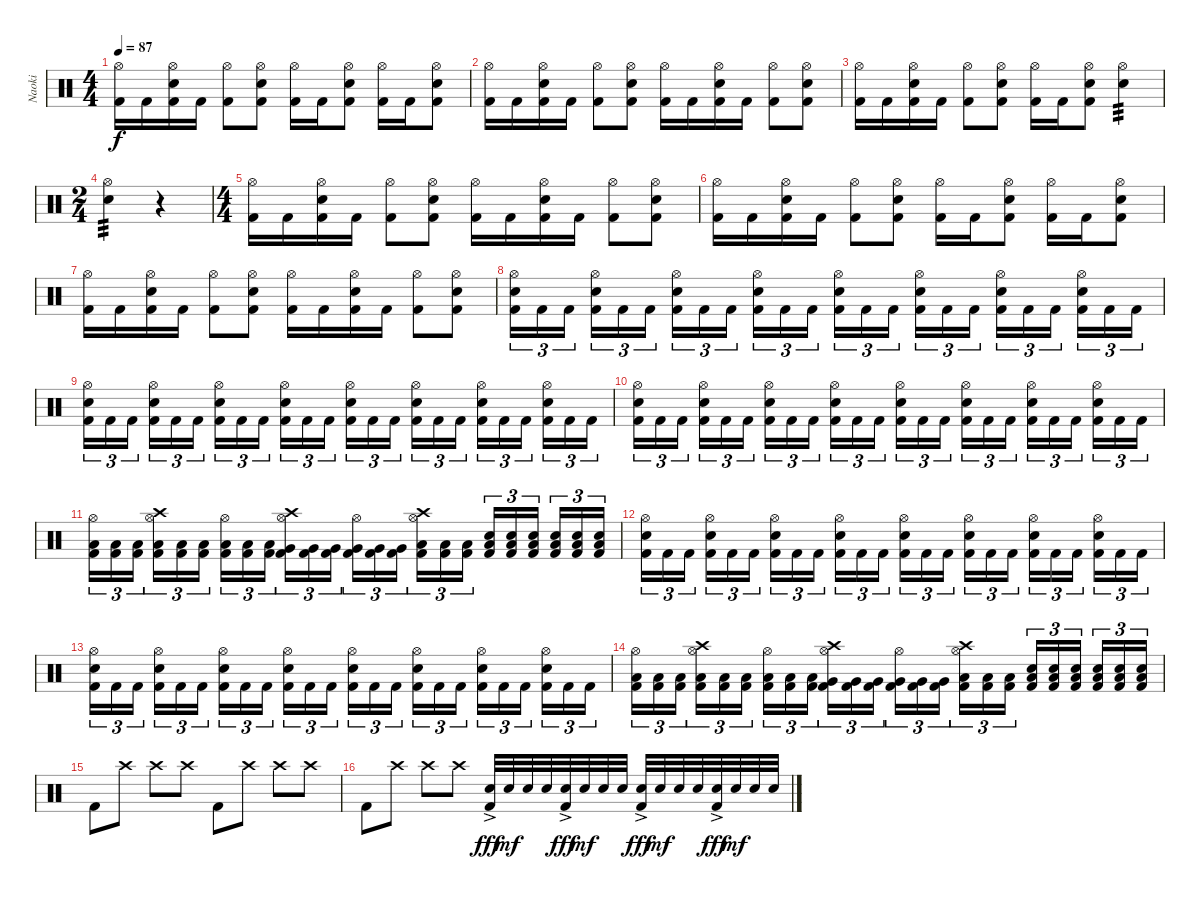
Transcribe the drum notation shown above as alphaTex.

\track ("Naoki" "Naoki") {instrument percussion}
\staff {score}
\articulation defaults
\ts (4 4)
\tempo 87
\clef neutral
\ks c
("Hi-Hat (open)" "Kick (hit) 2").16{dy f} "Kick (hit) 2".16 ("Hi-Hat (open)" "Electric Snare (hit)" "Kick (hit) 2").16 "Kick (hit) 2".16 ("Hi-Hat (open)" "Kick (hit) 2").8 ("Hi-Hat (open)" "Electric Snare (hit)" "Kick (hit) 2").8 ("Hi-Hat (open)" "Kick (hit) 2").16 "Kick (hit) 2".16 ("Hi-Hat (open)" "Electric Snare (hit)" "Kick (hit) 2").8 ("Hi-Hat (open)" "Kick (hit) 2").16 "Kick (hit) 2".16 ("Hi-Hat (open)" "Electric Snare (hit)" "Kick (hit) 2").8 |
("Hi-Hat (open)" "Kick (hit) 2").16 "Kick (hit) 2".16 ("Hi-Hat (open)" "Electric Snare (hit)" "Kick (hit) 2").16 "Kick (hit) 2".16 ("Hi-Hat (open)" "Kick (hit) 2").8 ("Hi-Hat (open)" "Electric Snare (hit)" "Kick (hit) 2").8 ("Hi-Hat (open)" "Kick (hit) 2").16 "Kick (hit) 2".16 ("Hi-Hat (open)" "Electric Snare (hit)" "Kick (hit) 2").16 "Kick (hit) 2".16 ("Hi-Hat (open)" "Kick (hit) 2").8 ("Hi-Hat (open)" "Electric Snare (hit)" "Kick (hit) 2").8 |
("Hi-Hat (open)" "Kick (hit) 2").16 "Kick (hit) 2".16 ("Hi-Hat (open)" "Electric Snare (hit)" "Kick (hit) 2").16 "Kick (hit) 2".16 ("Hi-Hat (open)" "Kick (hit) 2").8 ("Hi-Hat (open)" "Electric Snare (hit)" "Kick (hit) 2").8 ("Hi-Hat (open)" "Kick (hit) 2").16 "Kick (hit) 2".16 ("Hi-Hat (open)" "Electric Snare (hit)" "Kick (hit) 2").8 ("Hi-Hat (open)" "Electric Snare (hit)").4{tp 3} |
\ts (2 4)
("Hi-Hat (open)" "Electric Snare (hit)").4{tp 3} r.4 |
\ts (4 4)
("Hi-Hat (open)" "Kick (hit) 2").16 "Kick (hit) 2".16 ("Hi-Hat (open)" "Electric Snare (hit)" "Kick (hit) 2").16 "Kick (hit) 2".16 ("Hi-Hat (open)" "Kick (hit) 2").8 ("Hi-Hat (open)" "Electric Snare (hit)" "Kick (hit) 2").8 ("Hi-Hat (open)" "Kick (hit) 2").16 "Kick (hit) 2".16 ("Hi-Hat (open)" "Electric Snare (hit)" "Kick (hit) 2").16 "Kick (hit) 2".16 ("Hi-Hat (open)" "Kick (hit) 2").8 ("Hi-Hat (open)" "Electric Snare (hit)" "Kick (hit) 2").8 |
("Hi-Hat (open)" "Kick (hit) 2").16 "Kick (hit) 2".16 ("Hi-Hat (open)" "Electric Snare (hit)" "Kick (hit) 2").16 "Kick (hit) 2".16 ("Hi-Hat (open)" "Kick (hit) 2").8 ("Hi-Hat (open)" "Electric Snare (hit)" "Kick (hit) 2").8 ("Hi-Hat (open)" "Kick (hit) 2").16 "Kick (hit) 2".16 ("Hi-Hat (open)" "Electric Snare (hit)" "Kick (hit) 2").8 ("Hi-Hat (open)" "Kick (hit) 2").16 "Kick (hit) 2".16 ("Hi-Hat (open)" "Electric Snare (hit)" "Kick (hit) 2").8 |
("Hi-Hat (open)" "Kick (hit) 2").16 "Kick (hit) 2".16 ("Hi-Hat (open)" "Electric Snare (hit)" "Kick (hit) 2").16 "Kick (hit) 2".16 ("Hi-Hat (open)" "Kick (hit) 2").8 ("Hi-Hat (open)" "Electric Snare (hit)" "Kick (hit) 2").8 ("Hi-Hat (open)" "Kick (hit) 2").16 "Kick (hit) 2".16 ("Hi-Hat (open)" "Electric Snare (hit)" "Kick (hit) 2").16 "Kick (hit) 2".16 ("Hi-Hat (open)" "Kick (hit) 2").8 ("Hi-Hat (open)" "Electric Snare (hit)" "Kick (hit) 2").8 |
("Hi-Hat (open)" "Electric Snare (hit)" "Kick (hit) 2").16{tu (3 2)} "Kick (hit) 2".16{tu (3 2)} "Kick (hit) 2".16{tu (3 2) beam splitsecondary} ("Hi-Hat (open)" "Electric Snare (hit)" "Kick (hit) 2").16{tu (3 2)} "Kick (hit) 2".16{tu (3 2)} "Kick (hit) 2".16{tu (3 2)} ("Hi-Hat (open)" "Electric Snare (hit)" "Kick (hit) 2").16{tu (3 2)} "Kick (hit) 2".16{tu (3 2)} "Kick (hit) 2".16{tu (3 2) beam splitsecondary} ("Hi-Hat (open)" "Electric Snare (hit)" "Kick (hit) 2").16{tu (3 2)} "Kick (hit) 2".16{tu (3 2)} "Kick (hit) 2".16{tu (3 2)} ("Hi-Hat (open)" "Electric Snare (hit)" "Kick (hit) 2").16{tu (3 2)} "Kick (hit) 2".16{tu (3 2)} "Kick (hit) 2".16{tu (3 2) beam splitsecondary} ("Hi-Hat (open)" "Electric Snare (hit)" "Kick (hit) 2").16{tu (3 2)} "Kick (hit) 2".16{tu (3 2)} "Kick (hit) 2".16{tu (3 2)} ("Hi-Hat (open)" "Electric Snare (hit)" "Kick (hit) 2").16{tu (3 2)} "Kick (hit) 2".16{tu (3 2)} "Kick (hit) 2".16{tu (3 2) beam splitsecondary} ("Hi-Hat (open)" "Electric Snare (hit)" "Kick (hit) 2").16{tu (3 2)} "Kick (hit) 2".16{tu (3 2)} "Kick (hit) 2".16{tu (3 2)} |
("Hi-Hat (open)" "Electric Snare (hit)" "Kick (hit) 2").16{tu (3 2)} "Kick (hit) 2".16{tu (3 2)} "Kick (hit) 2".16{tu (3 2) beam splitsecondary} ("Hi-Hat (open)" "Electric Snare (hit)" "Kick (hit) 2").16{tu (3 2)} "Kick (hit) 2".16{tu (3 2)} "Kick (hit) 2".16{tu (3 2)} ("Hi-Hat (open)" "Electric Snare (hit)" "Kick (hit) 2").16{tu (3 2)} "Kick (hit) 2".16{tu (3 2)} "Kick (hit) 2".16{tu (3 2) beam splitsecondary} ("Hi-Hat (open)" "Electric Snare (hit)" "Kick (hit) 2").16{tu (3 2)} "Kick (hit) 2".16{tu (3 2)} "Kick (hit) 2".16{tu (3 2)} ("Hi-Hat (open)" "Electric Snare (hit)" "Kick (hit) 2").16{tu (3 2)} "Kick (hit) 2".16{tu (3 2)} "Kick (hit) 2".16{tu (3 2) beam splitsecondary} ("Hi-Hat (open)" "Electric Snare (hit)" "Kick (hit) 2").16{tu (3 2)} "Kick (hit) 2".16{tu (3 2)} "Kick (hit) 2".16{tu (3 2)} ("Hi-Hat (open)" "Electric Snare (hit)" "Kick (hit) 2").16{tu (3 2)} "Kick (hit) 2".16{tu (3 2)} "Kick (hit) 2".16{tu (3 2) beam splitsecondary} ("Hi-Hat (open)" "Electric Snare (hit)" "Kick (hit) 2").16{tu (3 2)} "Kick (hit) 2".16{tu (3 2)} "Kick (hit) 2".16{tu (3 2)} |
("Hi-Hat (open)" "Electric Snare (hit)" "Kick (hit) 2").16{tu (3 2)} "Kick (hit) 2".16{tu (3 2)} "Kick (hit) 2".16{tu (3 2) beam splitsecondary} ("Hi-Hat (open)" "Electric Snare (hit)" "Kick (hit) 2").16{tu (3 2)} "Kick (hit) 2".16{tu (3 2)} "Kick (hit) 2".16{tu (3 2)} ("Hi-Hat (open)" "Electric Snare (hit)" "Kick (hit) 2").16{tu (3 2)} "Kick (hit) 2".16{tu (3 2)} "Kick (hit) 2".16{tu (3 2) beam splitsecondary} ("Hi-Hat (open)" "Electric Snare (hit)" "Kick (hit) 2").16{tu (3 2)} "Kick (hit) 2".16{tu (3 2)} "Kick (hit) 2".16{tu (3 2)} ("Hi-Hat (open)" "Electric Snare (hit)" "Kick (hit) 2").16{tu (3 2)} "Kick (hit) 2".16{tu (3 2)} "Kick (hit) 2".16{tu (3 2) beam splitsecondary} ("Hi-Hat (open)" "Electric Snare (hit)" "Kick (hit) 2").16{tu (3 2)} "Kick (hit) 2".16{tu (3 2)} "Kick (hit) 2".16{tu (3 2)} ("Hi-Hat (open)" "Electric Snare (hit)" "Kick (hit) 2").16{tu (3 2)} "Kick (hit) 2".16{tu (3 2)} "Kick (hit) 2".16{tu (3 2) beam splitsecondary} ("Hi-Hat (open)" "Electric Snare (hit)" "Kick (hit) 2").16{tu (3 2)} "Kick (hit) 2".16{tu (3 2)} "Kick (hit) 2".16{tu (3 2)} |
("Hi-Hat (open)" "Low Tom (hit)" "Kick (hit) 2").16{tu (3 2)} ("Low Tom (hit)" "Kick (hit) 2").16{tu (3 2)} ("Low Tom (hit)" "Kick (hit) 2").16{tu (3 2) beam splitsecondary} ("Crash high (hit)" "Hi-Hat (open)" "Low Tom (hit)" "Kick (hit) 2").16{tu (3 2)} ("Low Tom (hit)" "Kick (hit) 2").16{tu (3 2)} ("Low Tom (hit)" "Kick (hit) 2").16{tu (3 2)} ("Hi-Hat (open)" "Low Tom (hit)" "Kick (hit) 2").16{tu (3 2)} ("Low Tom (hit)" "Kick (hit) 2").16{tu (3 2)} ("Low Tom (hit)" "Kick (hit) 2").16{tu (3 2) beam splitsecondary} ("Crash high (hit)" "Hi-Hat (open)" "Very Low Tom (hit)" "Kick (hit) 2").16{tu (3 2)} ("Very Low Tom (hit)" "Kick (hit) 2").16{tu (3 2)} ("Very Low Tom (hit)" "Kick (hit) 2").16{tu (3 2)} ("Hi-Hat (open)" "Very Low Tom (hit)" "Kick (hit) 2").16{tu (3 2)} ("Very Low Tom (hit)" "Kick (hit) 2").16{tu (3 2)} ("Very Low Tom (hit)" "Kick (hit) 2").16{tu (3 2) beam splitsecondary} ("Crash high (hit)" "Hi-Hat (open)" "Low Floor Tom (hit)" "Kick (hit) 2").16{tu (3 2)} ("Low Floor Tom (hit)" "Kick (hit) 2").16{tu (3 2)} ("Low Floor Tom (hit)" "Kick (hit) 2").16{tu (3 2)} ("Electric Snare (hit)" "Low Floor Tom (hit)" "Kick (hit) 2").16{tu (3 2)} ("Electric Snare (hit)" "Low Floor Tom (hit)" "Kick (hit) 2").16{tu (3 2)} ("Electric Snare (hit)" "Low Floor Tom (hit)" "Kick (hit) 2").16{tu (3 2) beam splitsecondary} ("Electric Snare (hit)" "Low Floor Tom (hit)" "Kick (hit) 2").16{tu (3 2)} ("Electric Snare (hit)" "Low Floor Tom (hit)" "Kick (hit) 2").16{tu (3 2)} ("Electric Snare (hit)" "Low Floor Tom (hit)" "Kick (hit) 2").16{tu (3 2)} |
("Hi-Hat (open)" "Electric Snare (hit)" "Kick (hit) 2").16{tu (3 2)} "Kick (hit) 2".16{tu (3 2)} "Kick (hit) 2".16{tu (3 2) beam splitsecondary} ("Hi-Hat (open)" "Electric Snare (hit)" "Kick (hit) 2").16{tu (3 2)} "Kick (hit) 2".16{tu (3 2)} "Kick (hit) 2".16{tu (3 2)} ("Hi-Hat (open)" "Electric Snare (hit)" "Kick (hit) 2").16{tu (3 2)} "Kick (hit) 2".16{tu (3 2)} "Kick (hit) 2".16{tu (3 2) beam splitsecondary} ("Hi-Hat (open)" "Electric Snare (hit)" "Kick (hit) 2").16{tu (3 2)} "Kick (hit) 2".16{tu (3 2)} "Kick (hit) 2".16{tu (3 2)} ("Hi-Hat (open)" "Electric Snare (hit)" "Kick (hit) 2").16{tu (3 2)} "Kick (hit) 2".16{tu (3 2)} "Kick (hit) 2".16{tu (3 2) beam splitsecondary} ("Hi-Hat (open)" "Electric Snare (hit)" "Kick (hit) 2").16{tu (3 2)} "Kick (hit) 2".16{tu (3 2)} "Kick (hit) 2".16{tu (3 2)} ("Hi-Hat (open)" "Electric Snare (hit)" "Kick (hit) 2").16{tu (3 2)} "Kick (hit) 2".16{tu (3 2)} "Kick (hit) 2".16{tu (3 2) beam splitsecondary} ("Hi-Hat (open)" "Electric Snare (hit)" "Kick (hit) 2").16{tu (3 2)} "Kick (hit) 2".16{tu (3 2)} "Kick (hit) 2".16{tu (3 2)} |
("Hi-Hat (open)" "Electric Snare (hit)" "Kick (hit) 2").16{tu (3 2)} "Kick (hit) 2".16{tu (3 2)} "Kick (hit) 2".16{tu (3 2) beam splitsecondary} ("Hi-Hat (open)" "Electric Snare (hit)" "Kick (hit) 2").16{tu (3 2)} "Kick (hit) 2".16{tu (3 2)} "Kick (hit) 2".16{tu (3 2)} ("Hi-Hat (open)" "Electric Snare (hit)" "Kick (hit) 2").16{tu (3 2)} "Kick (hit) 2".16{tu (3 2)} "Kick (hit) 2".16{tu (3 2) beam splitsecondary} ("Hi-Hat (open)" "Electric Snare (hit)" "Kick (hit) 2").16{tu (3 2)} "Kick (hit) 2".16{tu (3 2)} "Kick (hit) 2".16{tu (3 2)} ("Hi-Hat (open)" "Electric Snare (hit)" "Kick (hit) 2").16{tu (3 2)} "Kick (hit) 2".16{tu (3 2)} "Kick (hit) 2".16{tu (3 2) beam splitsecondary} ("Hi-Hat (open)" "Electric Snare (hit)" "Kick (hit) 2").16{tu (3 2)} "Kick (hit) 2".16{tu (3 2)} "Kick (hit) 2".16{tu (3 2)} ("Hi-Hat (open)" "Electric Snare (hit)" "Kick (hit) 2").16{tu (3 2)} "Kick (hit) 2".16{tu (3 2)} "Kick (hit) 2".16{tu (3 2) beam splitsecondary} ("Hi-Hat (open)" "Electric Snare (hit)" "Kick (hit) 2").16{tu (3 2)} "Kick (hit) 2".16{tu (3 2)} "Kick (hit) 2".16{tu (3 2)} |
("Hi-Hat (open)" "Low Tom (hit)" "Kick (hit) 2").16{tu (3 2)} ("Low Tom (hit)" "Kick (hit) 2").16{tu (3 2)} ("Low Tom (hit)" "Kick (hit) 2").16{tu (3 2) beam splitsecondary} ("Crash high (hit)" "Hi-Hat (open)" "Low Tom (hit)" "Kick (hit) 2").16{tu (3 2)} ("Low Tom (hit)" "Kick (hit) 2").16{tu (3 2)} ("Low Tom (hit)" "Kick (hit) 2").16{tu (3 2)} ("Hi-Hat (open)" "Low Tom (hit)" "Kick (hit) 2").16{tu (3 2)} ("Low Tom (hit)" "Kick (hit) 2").16{tu (3 2)} ("Low Tom (hit)" "Kick (hit) 2").16{tu (3 2) beam splitsecondary} ("Crash high (hit)" "Hi-Hat (open)" "Very Low Tom (hit)" "Kick (hit) 2").16{tu (3 2)} ("Very Low Tom (hit)" "Kick (hit) 2").16{tu (3 2)} ("Very Low Tom (hit)" "Kick (hit) 2").16{tu (3 2)} ("Hi-Hat (open)" "Very Low Tom (hit)" "Kick (hit) 2").16{tu (3 2)} ("Very Low Tom (hit)" "Kick (hit) 2").16{tu (3 2)} ("Very Low Tom (hit)" "Kick (hit) 2").16{tu (3 2) beam splitsecondary} ("Crash high (hit)" "Hi-Hat (open)" "Low Floor Tom (hit)" "Kick (hit) 2").16{tu (3 2)} ("Low Floor Tom (hit)" "Kick (hit) 2").16{tu (3 2)} ("Low Floor Tom (hit)" "Kick (hit) 2").16{tu (3 2)} ("Electric Snare (hit)" "Low Floor Tom (hit)" "Kick (hit) 2").16{tu (3 2)} ("Electric Snare (hit)" "Low Floor Tom (hit)" "Kick (hit) 2").16{tu (3 2)} ("Electric Snare (hit)" "Low Floor Tom (hit)" "Kick (hit) 2").16{tu (3 2) beam splitsecondary} ("Electric Snare (hit)" "Low Floor Tom (hit)" "Kick (hit) 2").16{tu (3 2)} ("Electric Snare (hit)" "Low Floor Tom (hit)" "Kick (hit) 2").16{tu (3 2)} ("Electric Snare (hit)" "Low Floor Tom (hit)" "Kick (hit) 2").16{tu (3 2)} |
"Kick (hit) 2".8 "Crash high (hit)".8 "Crash high (hit)".8 "Crash high (hit)".8 "Kick (hit) 2".8 "Crash high (hit)".8 "Crash high (hit)".8 "Crash high (hit)".8 |
"Kick (hit) 2".8 "Crash high (hit)".8 "Crash high (hit)".8 "Crash high (hit)".8 ("Electric Snare (hit)"{ac} "Kick (hit) 2").32{dy fff} "Electric Snare (hit)".32{dy mf} "Electric Snare (hit)".32 "Electric Snare (hit)".32 ("Electric Snare (hit)"{ac} "Kick (hit) 2").32{dy fff} "Electric Snare (hit)".32{dy mf} "Electric Snare (hit)".32 "Electric Snare (hit)".32 ("Electric Snare (hit)"{ac} "Kick (hit) 2").32{dy fff} "Electric Snare (hit)".32{dy mf} "Electric Snare (hit)".32 "Electric Snare (hit)".32 ("Electric Snare (hit)"{ac} "Kick (hit) 2").32{dy fff} "Electric Snare (hit)".32{dy mf} "Electric Snare (hit)".32 "Electric Snare (hit)".32
